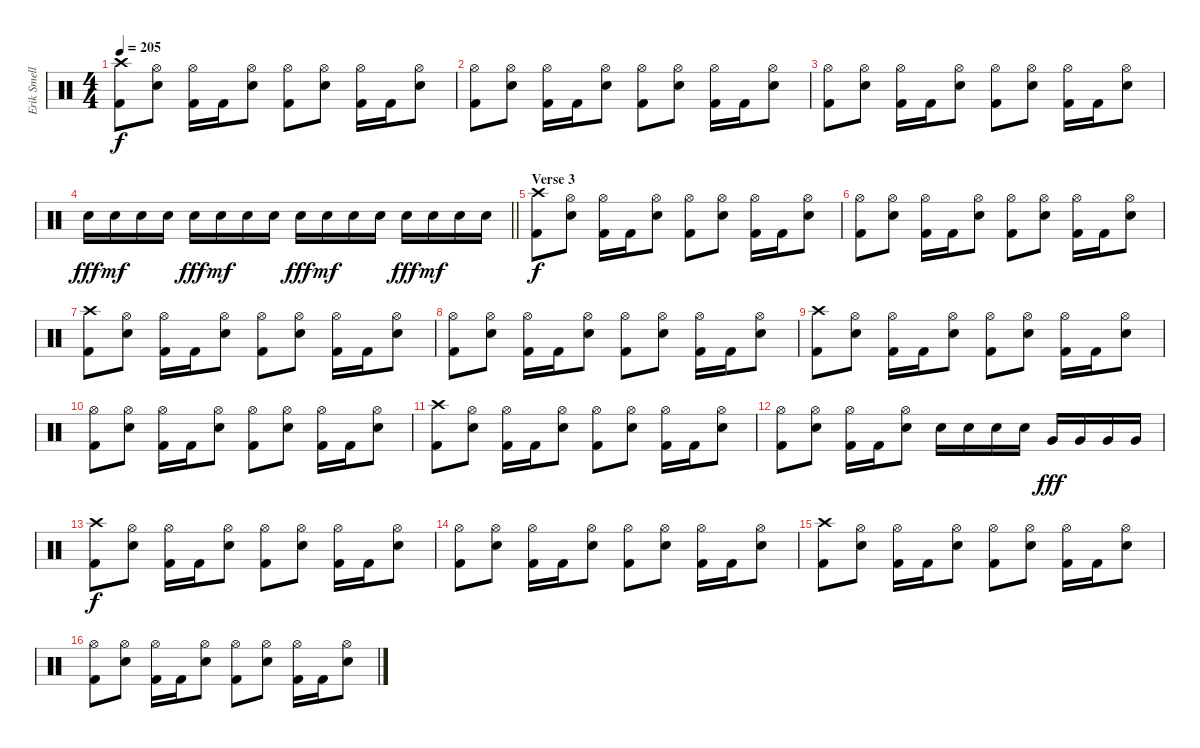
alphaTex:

\track ("Erik Smelly" "Erik Smell") {instrument percussion}
\staff {score}
\articulation defaults
\ts (4 4)
\tempo 205
\clef neutral
\ks c
("Crash high (hit)" "Kick (hit) 2").8{dy f} ("Hi-Hat (open)" "Electric Snare (hit)").8 ("Hi-Hat (open)" "Kick (hit) 2").16 "Kick (hit) 2".16 ("Hi-Hat (open)" "Electric Snare (hit)").8 ("Hi-Hat (open)" "Kick (hit) 2").8 ("Hi-Hat (open)" "Electric Snare (hit)").8 ("Hi-Hat (open)" "Kick (hit) 2").16 "Kick (hit) 2".16 ("Hi-Hat (open)" "Electric Snare (hit)").8 |
("Hi-Hat (open)" "Kick (hit) 2").8 ("Hi-Hat (open)" "Electric Snare (hit)").8 ("Hi-Hat (open)" "Kick (hit) 2").16 "Kick (hit) 2".16 ("Hi-Hat (open)" "Electric Snare (hit)").8 ("Hi-Hat (open)" "Kick (hit) 2").8 ("Hi-Hat (open)" "Electric Snare (hit)").8 ("Hi-Hat (open)" "Kick (hit) 2").16 "Kick (hit) 2".16 ("Hi-Hat (open)" "Electric Snare (hit)").8 |
("Hi-Hat (open)" "Kick (hit) 2").8 ("Hi-Hat (open)" "Electric Snare (hit)").8 ("Hi-Hat (open)" "Kick (hit) 2").16 "Kick (hit) 2".16 ("Hi-Hat (open)" "Electric Snare (hit)").8 ("Hi-Hat (open)" "Kick (hit) 2").8 ("Hi-Hat (open)" "Electric Snare (hit)").8 ("Hi-Hat (open)" "Kick (hit) 2").16 "Kick (hit) 2".16 ("Hi-Hat (open)" "Electric Snare (hit)").8 |
\barLineRight lightlight "Electric Snare (hit)".16{dy fff} "Electric Snare (hit)".16{dy mf} "Electric Snare (hit)".16 "Electric Snare (hit)".16 "Electric Snare (hit)".16{dy fff} "Electric Snare (hit)".16{dy mf} "Electric Snare (hit)".16 "Electric Snare (hit)".16 "Electric Snare (hit)".16{dy fff} "Electric Snare (hit)".16{dy mf} "Electric Snare (hit)".16 "Electric Snare (hit)".16 "Electric Snare (hit)".16{dy fff} "Electric Snare (hit)".16{dy mf} "Electric Snare (hit)".16 "Electric Snare (hit)".16
|
\section ("" "Verse 3")
("Crash high (hit)" "Kick (hit) 2").8{dy f} ("Hi-Hat (open)" "Electric Snare (hit)").8 ("Hi-Hat (open)" "Kick (hit) 2").16 "Kick (hit) 2".16 ("Hi-Hat (open)" "Electric Snare (hit)").8 ("Hi-Hat (open)" "Kick (hit) 2").8 ("Hi-Hat (open)" "Electric Snare (hit)").8 ("Hi-Hat (open)" "Kick (hit) 2").16 "Kick (hit) 2".16 ("Hi-Hat (open)" "Electric Snare (hit)").8 |
("Hi-Hat (open)" "Kick (hit) 2").8 ("Hi-Hat (open)" "Electric Snare (hit)").8 ("Hi-Hat (open)" "Kick (hit) 2").16 "Kick (hit) 2".16 ("Hi-Hat (open)" "Electric Snare (hit)").8 ("Hi-Hat (open)" "Kick (hit) 2").8 ("Hi-Hat (open)" "Electric Snare (hit)").8 ("Hi-Hat (open)" "Kick (hit) 2").16 "Kick (hit) 2".16 ("Hi-Hat (open)" "Electric Snare (hit)").8 |
("Crash high (hit)" "Kick (hit) 2").8 ("Hi-Hat (open)" "Electric Snare (hit)").8 ("Hi-Hat (open)" "Kick (hit) 2").16 "Kick (hit) 2".16 ("Hi-Hat (open)" "Electric Snare (hit)").8 ("Hi-Hat (open)" "Kick (hit) 2").8 ("Hi-Hat (open)" "Electric Snare (hit)").8 ("Hi-Hat (open)" "Kick (hit) 2").16 "Kick (hit) 2".16 ("Hi-Hat (open)" "Electric Snare (hit)").8 |
("Hi-Hat (open)" "Kick (hit) 2").8 ("Hi-Hat (open)" "Electric Snare (hit)").8 ("Hi-Hat (open)" "Kick (hit) 2").16 "Kick (hit) 2".16 ("Hi-Hat (open)" "Electric Snare (hit)").8 ("Hi-Hat (open)" "Kick (hit) 2").8 ("Hi-Hat (open)" "Electric Snare (hit)").8 ("Hi-Hat (open)" "Kick (hit) 2").16 "Kick (hit) 2".16 ("Hi-Hat (open)" "Electric Snare (hit)").8 |
("Crash high (hit)" "Kick (hit) 2").8 ("Hi-Hat (open)" "Electric Snare (hit)").8 ("Hi-Hat (open)" "Kick (hit) 2").16 "Kick (hit) 2".16 ("Hi-Hat (open)" "Electric Snare (hit)").8 ("Hi-Hat (open)" "Kick (hit) 2").8 ("Hi-Hat (open)" "Electric Snare (hit)").8 ("Hi-Hat (open)" "Kick (hit) 2").16 "Kick (hit) 2".16 ("Hi-Hat (open)" "Electric Snare (hit)").8 |
("Hi-Hat (open)" "Kick (hit) 2").8 ("Hi-Hat (open)" "Electric Snare (hit)").8 ("Hi-Hat (open)" "Kick (hit) 2").16 "Kick (hit) 2".16 ("Hi-Hat (open)" "Electric Snare (hit)").8 ("Hi-Hat (open)" "Kick (hit) 2").8 ("Hi-Hat (open)" "Electric Snare (hit)").8 ("Hi-Hat (open)" "Kick (hit) 2").16 "Kick (hit) 2".16 ("Hi-Hat (open)" "Electric Snare (hit)").8 |
("Crash high (hit)" "Kick (hit) 2").8 ("Hi-Hat (open)" "Electric Snare (hit)").8 ("Hi-Hat (open)" "Kick (hit) 2").16 "Kick (hit) 2".16 ("Hi-Hat (open)" "Electric Snare (hit)").8 ("Hi-Hat (open)" "Kick (hit) 2").8 ("Hi-Hat (open)" "Electric Snare (hit)").8 ("Hi-Hat (open)" "Kick (hit) 2").16 "Kick (hit) 2".16 ("Hi-Hat (open)" "Electric Snare (hit)").8 |
("Hi-Hat (open)" "Kick (hit) 2").8 ("Hi-Hat (open)" "Electric Snare (hit)").8 ("Hi-Hat (open)" "Kick (hit) 2").16 "Kick (hit) 2".16 ("Hi-Hat (open)" "Electric Snare (hit)").8 "Electric Snare (hit)".16 "Electric Snare (hit)".16 "Electric Snare (hit)".16 "Electric Snare (hit)".16 "Very Low Tom (hit)".16{dy fff} "Very Low Tom (hit)".16 "Very Low Tom (hit)".16 "Very Low Tom (hit)".16 |
("Crash high (hit)" "Kick (hit) 2").8{dy f} ("Hi-Hat (open)" "Electric Snare (hit)").8 ("Hi-Hat (open)" "Kick (hit) 2").16 "Kick (hit) 2".16 ("Hi-Hat (open)" "Electric Snare (hit)").8 ("Hi-Hat (open)" "Kick (hit) 2").8 ("Hi-Hat (open)" "Electric Snare (hit)").8 ("Hi-Hat (open)" "Kick (hit) 2").16 "Kick (hit) 2".16 ("Hi-Hat (open)" "Electric Snare (hit)").8 |
("Hi-Hat (open)" "Kick (hit) 2").8 ("Hi-Hat (open)" "Electric Snare (hit)").8 ("Hi-Hat (open)" "Kick (hit) 2").16 "Kick (hit) 2".16 ("Hi-Hat (open)" "Electric Snare (hit)").8 ("Hi-Hat (open)" "Kick (hit) 2").8 ("Hi-Hat (open)" "Electric Snare (hit)").8 ("Hi-Hat (open)" "Kick (hit) 2").16 "Kick (hit) 2".16 ("Hi-Hat (open)" "Electric Snare (hit)").8 |
("Crash high (hit)" "Kick (hit) 2").8 ("Hi-Hat (open)" "Electric Snare (hit)").8 ("Hi-Hat (open)" "Kick (hit) 2").16 "Kick (hit) 2".16 ("Hi-Hat (open)" "Electric Snare (hit)").8 ("Hi-Hat (open)" "Kick (hit) 2").8 ("Hi-Hat (open)" "Electric Snare (hit)").8 ("Hi-Hat (open)" "Kick (hit) 2").16 "Kick (hit) 2".16 ("Hi-Hat (open)" "Electric Snare (hit)").8 |
("Hi-Hat (open)" "Kick (hit) 2").8 ("Hi-Hat (open)" "Electric Snare (hit)").8 ("Hi-Hat (open)" "Kick (hit) 2").16 "Kick (hit) 2".16 ("Hi-Hat (open)" "Electric Snare (hit)").8 ("Hi-Hat (open)" "Kick (hit) 2").8 ("Hi-Hat (open)" "Electric Snare (hit)").8 ("Hi-Hat (open)" "Kick (hit) 2").16 "Kick (hit) 2".16 ("Hi-Hat (open)" "Electric Snare (hit)").8
